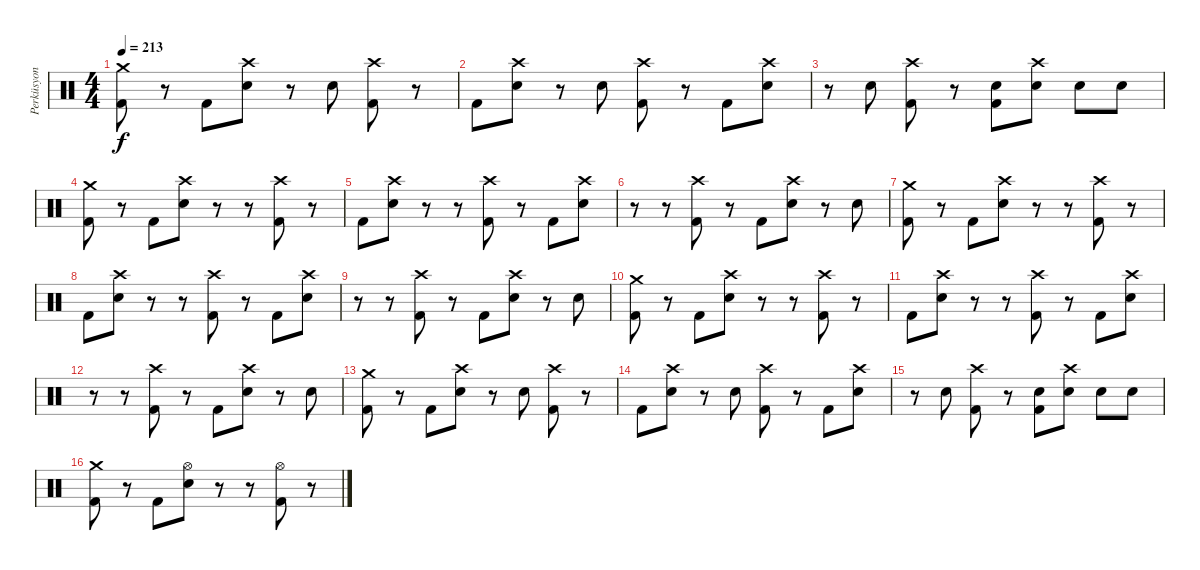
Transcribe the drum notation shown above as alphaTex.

\track ("Perküsyon" "Perküsyon") {instrument percussion}
\staff {score}
\articulation defaults
\ts (4 4)
\tempo 213
\clef neutral
\ks c
("Crash medium (hit)" "Kick (hit) 2").8{dy f} r.8 "Kick (hit) 2".8 ("Crash high (hit)" "Electric Snare (hit)").8 r.8 "Electric Snare (hit)".8 ("Crash high (hit)" "Kick (hit) 2").8 r.8 |
"Kick (hit) 2".8 ("Crash high (hit)" "Electric Snare (hit)").8 r.8 "Electric Snare (hit)".8 ("Crash high (hit)" "Kick (hit) 2").8 r.8 "Kick (hit) 2".8 ("Crash high (hit)" "Electric Snare (hit)").8 |
r.8 "Electric Snare (hit)".8 ("Crash high (hit)" "Kick (hit) 2").8 r.8 ("Electric Snare (hit)" "Kick (hit) 2").8 ("Crash high (hit)" "Electric Snare (hit)").8 "Electric Snare (hit)".8 "Electric Snare (hit)".8 |
("Crash medium (hit)" "Kick (hit) 2").8 r.8 "Kick (hit) 2".8 ("Crash high (hit)" "Electric Snare (hit)").8 r.8 r.8 ("Crash high (hit)" "Kick (hit) 2").8 r.8 |
"Kick (hit) 2".8 ("Crash high (hit)" "Electric Snare (hit)").8 r.8 r.8 ("Crash high (hit)" "Kick (hit) 2").8 r.8 "Kick (hit) 2".8 ("Crash high (hit)" "Electric Snare (hit)").8 |
r.8 r.8 ("Crash high (hit)" "Kick (hit) 2").8 r.8 "Kick (hit) 2".8 ("Crash high (hit)" "Electric Snare (hit)").8 r.8 "Electric Snare (hit)".8 |
("Crash medium (hit)" "Kick (hit) 2").8 r.8 "Kick (hit) 2".8 ("Crash high (hit)" "Electric Snare (hit)").8 r.8 r.8 ("Crash high (hit)" "Kick (hit) 2").8 r.8 |
"Kick (hit) 2".8 ("Crash high (hit)" "Electric Snare (hit)").8 r.8 r.8 ("Crash high (hit)" "Kick (hit) 2").8 r.8 "Kick (hit) 2".8 ("Crash high (hit)" "Electric Snare (hit)").8 |
r.8 r.8 ("Crash high (hit)" "Kick (hit) 2").8 r.8 "Kick (hit) 2".8 ("Crash high (hit)" "Electric Snare (hit)").8 r.8 "Electric Snare (hit)".8 |
("Crash medium (hit)" "Kick (hit) 2").8 r.8 "Kick (hit) 2".8 ("Crash high (hit)" "Electric Snare (hit)").8 r.8 r.8 ("Crash high (hit)" "Kick (hit) 2").8 r.8 |
"Kick (hit) 2".8 ("Crash high (hit)" "Electric Snare (hit)").8 r.8 r.8 ("Crash high (hit)" "Kick (hit) 2").8 r.8 "Kick (hit) 2".8 ("Crash high (hit)" "Electric Snare (hit)").8 |
r.8 r.8 ("Crash high (hit)" "Kick (hit) 2").8 r.8 "Kick (hit) 2".8 ("Crash high (hit)" "Electric Snare (hit)").8 r.8 "Electric Snare (hit)".8 |
("Crash medium (hit)" "Kick (hit) 2").8 r.8 "Kick (hit) 2".8 ("Crash high (hit)" "Electric Snare (hit)").8 r.8 "Electric Snare (hit)".8 ("Crash high (hit)" "Kick (hit) 2").8 r.8 |
"Kick (hit) 2".8 ("Crash high (hit)" "Electric Snare (hit)").8 r.8 "Electric Snare (hit)".8 ("Crash high (hit)" "Kick (hit) 2").8 r.8 "Kick (hit) 2".8 ("Crash high (hit)" "Electric Snare (hit)").8 |
r.8 "Electric Snare (hit)".8 ("Crash high (hit)" "Kick (hit) 2").8 r.8 ("Electric Snare (hit)" "Kick (hit) 2").8 ("Crash high (hit)" "Electric Snare (hit)").8 "Electric Snare (hit)".8 "Electric Snare (hit)".8 |
("Crash medium (hit)" "Kick (hit) 2").8 r.8 "Kick (hit) 2".8 ("Hi-Hat (open)" "Electric Snare (hit)").8 r.8 r.8 ("Hi-Hat (open)" "Kick (hit) 2").8 r.8
